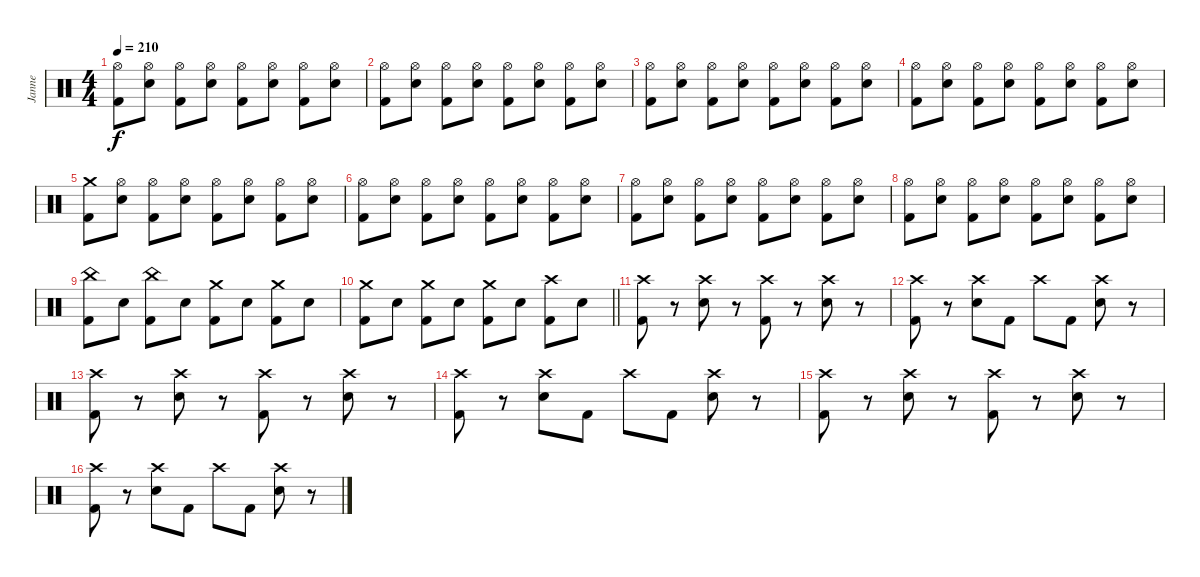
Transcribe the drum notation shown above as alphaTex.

\track ("Janne" "Janne") {instrument percussion}
\staff {score}
\articulation defaults
\ts (4 4)
\tempo 210
\clef neutral
\ks c
("Hi-Hat (open)" "Kick (hit) 2").8{dy f} ("Hi-Hat (open)" "Electric Snare (hit)").8 ("Hi-Hat (open)" "Kick (hit) 2").8 ("Hi-Hat (open)" "Electric Snare (hit)").8 ("Hi-Hat (open)" "Kick (hit) 2").8 ("Hi-Hat (open)" "Electric Snare (hit)").8 ("Hi-Hat (open)" "Kick (hit) 2").8 ("Hi-Hat (open)" "Electric Snare (hit)").8 |
("Hi-Hat (open)" "Kick (hit) 2").8 ("Hi-Hat (open)" "Electric Snare (hit)").8 ("Hi-Hat (open)" "Kick (hit) 2").8 ("Hi-Hat (open)" "Electric Snare (hit)").8 ("Hi-Hat (open)" "Kick (hit) 2").8 ("Hi-Hat (open)" "Electric Snare (hit)").8 ("Hi-Hat (open)" "Kick (hit) 2").8 ("Hi-Hat (open)" "Electric Snare (hit)").8 |
("Hi-Hat (open)" "Kick (hit) 2").8 ("Hi-Hat (open)" "Electric Snare (hit)").8 ("Hi-Hat (open)" "Kick (hit) 2").8 ("Hi-Hat (open)" "Electric Snare (hit)").8 ("Hi-Hat (open)" "Kick (hit) 2").8 ("Hi-Hat (open)" "Electric Snare (hit)").8 ("Hi-Hat (open)" "Kick (hit) 2").8 ("Hi-Hat (open)" "Electric Snare (hit)").8 |
("Hi-Hat (open)" "Kick (hit) 2").8 ("Hi-Hat (open)" "Electric Snare (hit)").8 ("Hi-Hat (open)" "Kick (hit) 2").8 ("Hi-Hat (open)" "Electric Snare (hit)").8 ("Hi-Hat (open)" "Kick (hit) 2").8 ("Hi-Hat (open)" "Electric Snare (hit)").8 ("Hi-Hat (open)" "Kick (hit) 2").8 ("Hi-Hat (open)" "Electric Snare (hit)").8 |
("Crash medium (hit)" "Kick (hit) 2").8 ("Hi-Hat (open)" "Electric Snare (hit)").8 ("Hi-Hat (open)" "Kick (hit) 2").8 ("Hi-Hat (open)" "Electric Snare (hit)").8 ("Hi-Hat (open)" "Kick (hit) 2").8 ("Hi-Hat (open)" "Electric Snare (hit)").8 ("Hi-Hat (open)" "Kick (hit) 2").8 ("Hi-Hat (open)" "Electric Snare (hit)").8 |
("Hi-Hat (open)" "Kick (hit) 2").8 ("Hi-Hat (open)" "Electric Snare (hit)").8 ("Hi-Hat (open)" "Kick (hit) 2").8 ("Hi-Hat (open)" "Electric Snare (hit)").8 ("Hi-Hat (open)" "Kick (hit) 2").8 ("Hi-Hat (open)" "Electric Snare (hit)").8 ("Hi-Hat (open)" "Kick (hit) 2").8 ("Hi-Hat (open)" "Electric Snare (hit)").8 |
("Hi-Hat (open)" "Kick (hit) 2").8 ("Hi-Hat (open)" "Electric Snare (hit)").8 ("Hi-Hat (open)" "Kick (hit) 2").8 ("Hi-Hat (open)" "Electric Snare (hit)").8 ("Hi-Hat (open)" "Kick (hit) 2").8 ("Hi-Hat (open)" "Electric Snare (hit)").8 ("Hi-Hat (open)" "Kick (hit) 2").8 ("Hi-Hat (open)" "Electric Snare (hit)").8 |
("Hi-Hat (open)" "Kick (hit) 2").8 ("Hi-Hat (open)" "Electric Snare (hit)").8 ("Hi-Hat (open)" "Kick (hit) 2").8 ("Hi-Hat (open)" "Electric Snare (hit)").8 ("Hi-Hat (open)" "Kick (hit) 2").8 ("Hi-Hat (open)" "Electric Snare (hit)").8 ("Hi-Hat (open)" "Kick (hit) 2").8 ("Hi-Hat (open)" "Electric Snare (hit)").8 |
("China (hit)" "Kick (hit) 2").8 "Electric Snare (hit)".8 ("China (hit)" "Kick (hit) 2").8 "Electric Snare (hit)".8 ("Crash medium (hit)" "Kick (hit) 2").8 "Electric Snare (hit)".8 ("Crash medium (hit)" "Kick (hit) 2").8 "Electric Snare (hit)".8 |
\barLineRight lightlight
("Crash medium (hit)" "Kick (hit) 2").8 "Electric Snare (hit)".8 ("Crash medium (hit)" "Kick (hit) 2").8 "Electric Snare (hit)".8 ("Crash medium (hit)" "Kick (hit) 2").8 "Electric Snare (hit)".8 ("Crash high (hit)" "Kick (hit) 2").8 "Electric Snare (hit)".8 |
("Crash high (hit)" "Kick (hit) 2").8 r.8 ("Crash high (hit)" "Electric Snare (hit)").8 r.8 ("Crash high (hit)" "Kick (hit) 2").8 r.8 ("Crash high (hit)" "Electric Snare (hit)").8 r.8 |
("Crash high (hit)" "Kick (hit) 2").8 r.8 ("Crash high (hit)" "Electric Snare (hit)").8 "Kick (hit) 2".8 "Crash high (hit)".8 "Kick (hit) 2".8 ("Crash high (hit)" "Electric Snare (hit)").8 r.8 |
("Crash high (hit)" "Kick (hit) 2").8 r.8 ("Crash high (hit)" "Electric Snare (hit)").8 r.8 ("Crash high (hit)" "Kick (hit) 2").8 r.8 ("Crash high (hit)" "Electric Snare (hit)").8 r.8 |
("Crash high (hit)" "Kick (hit) 2").8 r.8 ("Crash high (hit)" "Electric Snare (hit)").8 "Kick (hit) 2".8 "Crash high (hit)".8 "Kick (hit) 2".8 ("Crash high (hit)" "Electric Snare (hit)").8 r.8 |
("Crash high (hit)" "Kick (hit) 2").8 r.8 ("Crash high (hit)" "Electric Snare (hit)").8 r.8 ("Crash high (hit)" "Kick (hit) 2").8 r.8 ("Crash high (hit)" "Electric Snare (hit)").8 r.8 |
("Crash high (hit)" "Kick (hit) 2").8 r.8 ("Crash high (hit)" "Electric Snare (hit)").8 "Kick (hit) 2".8 "Crash high (hit)".8 "Kick (hit) 2".8 ("Crash high (hit)" "Electric Snare (hit)").8 r.8
